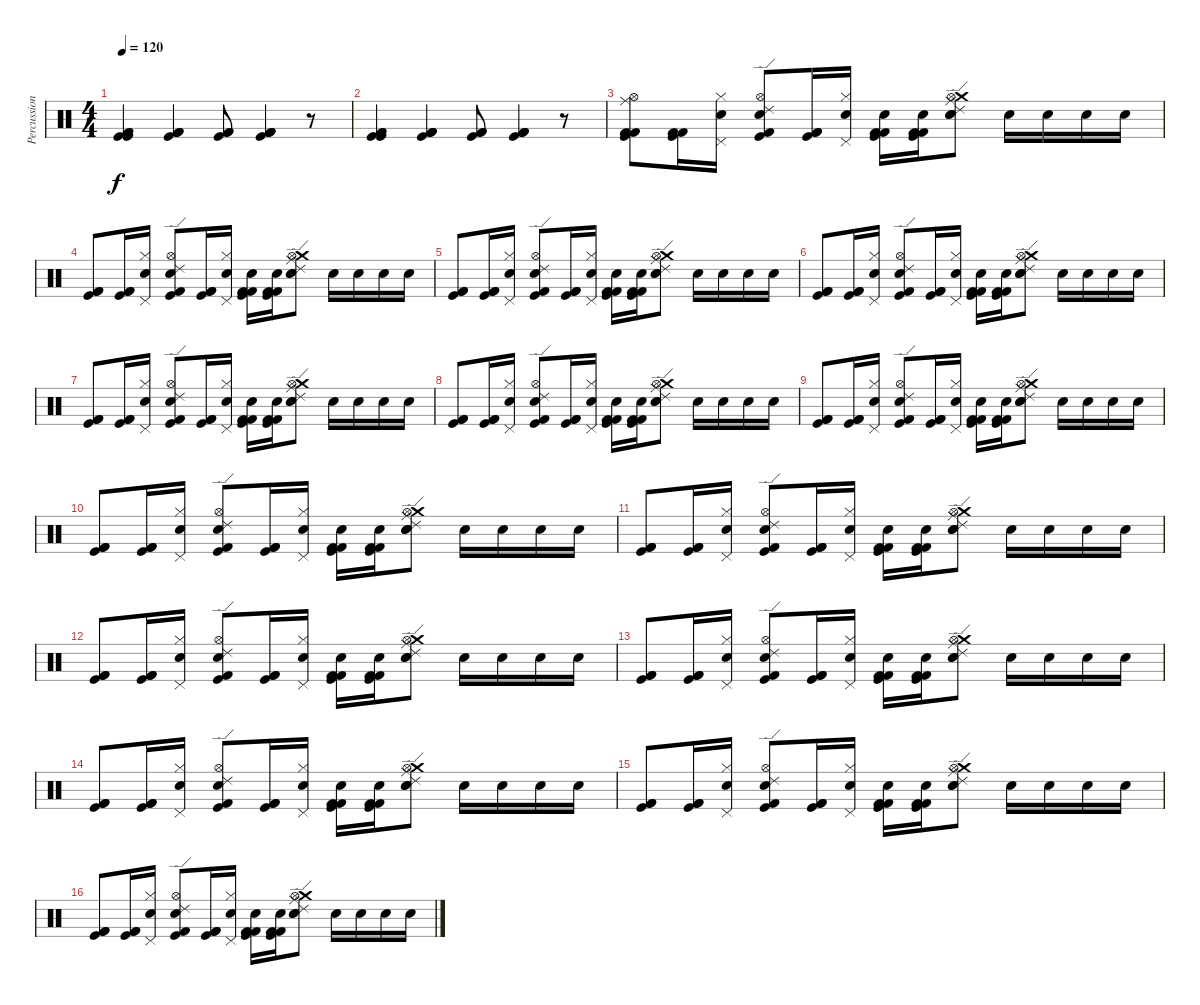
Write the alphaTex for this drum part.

\track ("Percussion" "Percussion") {instrument percussion}
\staff {score}
\articulation defaults
\ts (4 4)
\tempo 120
\clef neutral
\ks c
("Kick (hit)" "Kick (hit) 2" "Kick (hit) 2" "Kick (hit)").4{dy f} ("Kick (hit) 2" "Kick (hit) 2" "Kick (hit)" "Kick (hit) 2").4 ("Kick (hit) 2" "Kick (hit)" "Kick (hit) 2").8 ("Kick (hit) 2" "Kick (hit)" "Kick (hit) 2" "Kick (hit) 2").4 r.8 |
("Kick (hit)" "Kick (hit) 2" "Kick (hit) 2" "Kick (hit)").4 ("Kick (hit) 2" "Kick (hit) 2" "Kick (hit)" "Kick (hit) 2").4 ("Kick (hit) 2" "Kick (hit)" "Kick (hit) 2").8 ("Kick (hit) 2" "Kick (hit)" "Kick (hit) 2" "Kick (hit) 2").4 r.8 |
("Kick (hit) 2" "Kick (hit)" "Kick (hit) 2" "Ride (middle)" "Hi-Hat (open)").8 ("Kick (hit) 2" "Kick (hit)" "Kick (hit) 2").16 ("Pedal Hi-Hat (hit)" "Hi-Hat (closed)" "Electric Snare (hit)").16 ("Snare (hit) 2" "Kick (hit) 2" "Kick (hit)" "Ride (edge) 2" "Hi-Hat (open)").8 ("Kick (hit) 2" "Kick (hit)" "Kick (hit) 2").16 ("Pedal Hi-Hat (hit)" "Hi-Hat (closed)" "Electric Snare (hit)").16 ("Kick (hit) 2" "Snare (hit) 2" "Kick (hit) 2" "Kick (hit)").16 ("Kick (hit) 2" "Snare (hit) 2" "Kick (hit) 2" "Kick (hit)").16 ("Electric Snare (hit)" "Snare (hit) 2" "Crash medium (hit)" "Hi-Hat (open)" "Ride (middle)" "Ride (edge) 2").8 "Snare (hit) 2".16 "Electric Snare (hit)".16 "Electric Snare (hit)".16 "Snare (hit) 2".16 |
("Kick (hit) 2" "Kick (hit)" "Kick (hit) 2").8 ("Kick (hit) 2" "Kick (hit)" "Kick (hit) 2").16 ("Pedal Hi-Hat (hit)" "Hi-Hat (closed)" "Electric Snare (hit)").16 ("Snare (hit) 2" "Kick (hit) 2" "Kick (hit)" "Ride (edge) 2" "Hi-Hat (open)").8 ("Kick (hit) 2" "Kick (hit)" "Kick (hit) 2").16 ("Pedal Hi-Hat (hit)" "Hi-Hat (closed)" "Electric Snare (hit)").16 ("Kick (hit) 2" "Snare (hit) 2" "Kick (hit) 2" "Kick (hit)").16 ("Kick (hit) 2" "Snare (hit) 2" "Kick (hit) 2" "Kick (hit)").16 ("Electric Snare (hit)" "Snare (hit) 2" "Crash medium (hit)" "Hi-Hat (open)" "Ride (middle)" "Ride (edge) 2").8 "Snare (hit) 2".16 "Electric Snare (hit)".16 "Electric Snare (hit)".16 "Snare (hit) 2".16 |
("Kick (hit) 2" "Kick (hit)" "Kick (hit) 2").8 ("Kick (hit) 2" "Kick (hit)" "Kick (hit) 2").16 ("Pedal Hi-Hat (hit)" "Hi-Hat (closed)" "Electric Snare (hit)").16 ("Snare (hit) 2" "Kick (hit) 2" "Kick (hit)" "Ride (edge) 2" "Hi-Hat (open)").8 ("Kick (hit) 2" "Kick (hit)" "Kick (hit) 2").16 ("Pedal Hi-Hat (hit)" "Hi-Hat (closed)" "Electric Snare (hit)").16 ("Kick (hit) 2" "Snare (hit) 2" "Kick (hit) 2" "Kick (hit)").16 ("Kick (hit) 2" "Snare (hit) 2" "Kick (hit) 2" "Kick (hit)").16 ("Electric Snare (hit)" "Snare (hit) 2" "Crash medium (hit)" "Hi-Hat (open)" "Ride (middle)" "Ride (edge) 2").8 "Snare (hit) 2".16 "Electric Snare (hit)".16 "Electric Snare (hit)".16 "Snare (hit) 2".16 |
("Kick (hit) 2" "Kick (hit)" "Kick (hit) 2").8 ("Kick (hit) 2" "Kick (hit)" "Kick (hit) 2").16 ("Pedal Hi-Hat (hit)" "Hi-Hat (closed)" "Electric Snare (hit)").16 ("Snare (hit) 2" "Kick (hit) 2" "Kick (hit)" "Ride (edge) 2" "Hi-Hat (open)").8 ("Kick (hit) 2" "Kick (hit)" "Kick (hit) 2").16 ("Pedal Hi-Hat (hit)" "Hi-Hat (closed)" "Electric Snare (hit)").16 ("Kick (hit) 2" "Snare (hit) 2" "Kick (hit) 2" "Kick (hit)").16 ("Kick (hit) 2" "Snare (hit) 2" "Kick (hit) 2" "Kick (hit)").16 ("Electric Snare (hit)" "Snare (hit) 2" "Crash medium (hit)" "Hi-Hat (open)" "Ride (middle)" "Ride (edge) 2").8 "Snare (hit) 2".16 "Electric Snare (hit)".16 "Electric Snare (hit)".16 "Snare (hit) 2".16 |
("Kick (hit) 2" "Kick (hit)" "Kick (hit) 2").8 ("Kick (hit) 2" "Kick (hit)" "Kick (hit) 2").16 ("Pedal Hi-Hat (hit)" "Hi-Hat (closed)" "Electric Snare (hit)").16 ("Snare (hit) 2" "Kick (hit) 2" "Kick (hit)" "Ride (edge) 2" "Hi-Hat (open)").8 ("Kick (hit) 2" "Kick (hit)" "Kick (hit) 2").16 ("Pedal Hi-Hat (hit)" "Hi-Hat (closed)" "Electric Snare (hit)").16 ("Kick (hit) 2" "Snare (hit) 2" "Kick (hit) 2" "Kick (hit)").16 ("Kick (hit) 2" "Snare (hit) 2" "Kick (hit) 2" "Kick (hit)").16 ("Electric Snare (hit)" "Snare (hit) 2" "Crash medium (hit)" "Hi-Hat (open)" "Ride (middle)" "Ride (edge) 2").8 "Snare (hit) 2".16 "Electric Snare (hit)".16 "Electric Snare (hit)".16 "Snare (hit) 2".16 |
("Kick (hit) 2" "Kick (hit)" "Kick (hit) 2").8 ("Kick (hit) 2" "Kick (hit)" "Kick (hit) 2").16 ("Pedal Hi-Hat (hit)" "Hi-Hat (closed)" "Electric Snare (hit)").16 ("Snare (hit) 2" "Kick (hit) 2" "Kick (hit)" "Ride (edge) 2" "Hi-Hat (open)").8 ("Kick (hit) 2" "Kick (hit)" "Kick (hit) 2").16 ("Pedal Hi-Hat (hit)" "Hi-Hat (closed)" "Electric Snare (hit)").16 ("Kick (hit) 2" "Snare (hit) 2" "Kick (hit) 2" "Kick (hit)").16 ("Kick (hit) 2" "Snare (hit) 2" "Kick (hit) 2" "Kick (hit)").16 ("Electric Snare (hit)" "Snare (hit) 2" "Crash medium (hit)" "Hi-Hat (open)" "Ride (middle)" "Ride (edge) 2").8 "Snare (hit) 2".16 "Electric Snare (hit)".16 "Electric Snare (hit)".16 "Snare (hit) 2".16 |
("Kick (hit) 2" "Kick (hit)" "Kick (hit) 2").8 ("Kick (hit) 2" "Kick (hit)" "Kick (hit) 2").16 ("Pedal Hi-Hat (hit)" "Hi-Hat (closed)" "Electric Snare (hit)").16 ("Snare (hit) 2" "Kick (hit) 2" "Kick (hit)" "Ride (edge) 2" "Hi-Hat (open)").8 ("Kick (hit) 2" "Kick (hit)" "Kick (hit) 2").16 ("Pedal Hi-Hat (hit)" "Hi-Hat (closed)" "Electric Snare (hit)").16 ("Kick (hit) 2" "Snare (hit) 2" "Kick (hit) 2" "Kick (hit)").16 ("Kick (hit) 2" "Snare (hit) 2" "Kick (hit) 2" "Kick (hit)").16 ("Electric Snare (hit)" "Snare (hit) 2" "Crash medium (hit)" "Hi-Hat (open)" "Ride (middle)" "Ride (edge) 2").8 "Snare (hit) 2".16 "Electric Snare (hit)".16 "Electric Snare (hit)".16 "Snare (hit) 2".16 |
("Kick (hit) 2" "Kick (hit)" "Kick (hit) 2").8 ("Kick (hit) 2" "Kick (hit)" "Kick (hit) 2").16 ("Pedal Hi-Hat (hit)" "Hi-Hat (closed)" "Electric Snare (hit)").16 ("Snare (hit) 2" "Kick (hit) 2" "Kick (hit)" "Ride (edge) 2" "Hi-Hat (open)").8 ("Kick (hit) 2" "Kick (hit)" "Kick (hit) 2").16 ("Pedal Hi-Hat (hit)" "Hi-Hat (closed)" "Electric Snare (hit)").16 ("Kick (hit) 2" "Snare (hit) 2" "Kick (hit) 2" "Kick (hit)").16 ("Kick (hit) 2" "Snare (hit) 2" "Kick (hit) 2" "Kick (hit)").16 ("Electric Snare (hit)" "Snare (hit) 2" "Crash medium (hit)" "Hi-Hat (open)" "Ride (middle)" "Ride (edge) 2").8 "Snare (hit) 2".16 "Electric Snare (hit)".16 "Electric Snare (hit)".16 "Snare (hit) 2".16 |
("Kick (hit) 2" "Kick (hit)" "Kick (hit) 2").8 ("Kick (hit) 2" "Kick (hit)" "Kick (hit) 2").16 ("Pedal Hi-Hat (hit)" "Hi-Hat (closed)" "Electric Snare (hit)").16 ("Snare (hit) 2" "Kick (hit) 2" "Kick (hit)" "Ride (edge) 2" "Hi-Hat (open)").8 ("Kick (hit) 2" "Kick (hit)" "Kick (hit) 2").16 ("Pedal Hi-Hat (hit)" "Hi-Hat (closed)" "Electric Snare (hit)").16 ("Kick (hit) 2" "Snare (hit) 2" "Kick (hit) 2" "Kick (hit)").16 ("Kick (hit) 2" "Snare (hit) 2" "Kick (hit) 2" "Kick (hit)").16 ("Electric Snare (hit)" "Snare (hit) 2" "Crash medium (hit)" "Hi-Hat (open)" "Ride (middle)" "Ride (edge) 2").8 "Snare (hit) 2".16 "Electric Snare (hit)".16 "Electric Snare (hit)".16 "Snare (hit) 2".16 |
("Kick (hit) 2" "Kick (hit)" "Kick (hit) 2").8 ("Kick (hit) 2" "Kick (hit)" "Kick (hit) 2").16 ("Pedal Hi-Hat (hit)" "Hi-Hat (closed)" "Electric Snare (hit)").16 ("Snare (hit) 2" "Kick (hit) 2" "Kick (hit)" "Ride (edge) 2" "Hi-Hat (open)").8 ("Kick (hit) 2" "Kick (hit)" "Kick (hit) 2").16 ("Pedal Hi-Hat (hit)" "Hi-Hat (closed)" "Electric Snare (hit)").16 ("Kick (hit) 2" "Snare (hit) 2" "Kick (hit) 2" "Kick (hit)").16 ("Kick (hit) 2" "Snare (hit) 2" "Kick (hit) 2" "Kick (hit)").16 ("Electric Snare (hit)" "Snare (hit) 2" "Crash medium (hit)" "Hi-Hat (open)" "Ride (middle)" "Ride (edge) 2").8 "Snare (hit) 2".16 "Electric Snare (hit)".16 "Electric Snare (hit)".16 "Snare (hit) 2".16 |
("Kick (hit) 2" "Kick (hit)" "Kick (hit) 2").8 ("Kick (hit) 2" "Kick (hit)" "Kick (hit) 2").16 ("Pedal Hi-Hat (hit)" "Hi-Hat (closed)" "Electric Snare (hit)").16 ("Snare (hit) 2" "Kick (hit) 2" "Kick (hit)" "Ride (edge) 2" "Hi-Hat (open)").8 ("Kick (hit) 2" "Kick (hit)" "Kick (hit) 2").16 ("Pedal Hi-Hat (hit)" "Hi-Hat (closed)" "Electric Snare (hit)").16 ("Kick (hit) 2" "Snare (hit) 2" "Kick (hit) 2" "Kick (hit)").16 ("Kick (hit) 2" "Snare (hit) 2" "Kick (hit) 2" "Kick (hit)").16 ("Electric Snare (hit)" "Snare (hit) 2" "Crash medium (hit)" "Hi-Hat (open)" "Ride (middle)" "Ride (edge) 2").8 "Snare (hit) 2".16 "Electric Snare (hit)".16 "Electric Snare (hit)".16 "Snare (hit) 2".16 |
("Kick (hit) 2" "Kick (hit)" "Kick (hit) 2").8 ("Kick (hit) 2" "Kick (hit)" "Kick (hit) 2").16 ("Pedal Hi-Hat (hit)" "Hi-Hat (closed)" "Electric Snare (hit)").16 ("Snare (hit) 2" "Kick (hit) 2" "Kick (hit)" "Ride (edge) 2" "Hi-Hat (open)").8 ("Kick (hit) 2" "Kick (hit)" "Kick (hit) 2").16 ("Pedal Hi-Hat (hit)" "Hi-Hat (closed)" "Electric Snare (hit)").16 ("Kick (hit) 2" "Snare (hit) 2" "Kick (hit) 2" "Kick (hit)").16 ("Kick (hit) 2" "Snare (hit) 2" "Kick (hit) 2" "Kick (hit)").16 ("Electric Snare (hit)" "Snare (hit) 2" "Crash medium (hit)" "Hi-Hat (open)" "Ride (middle)" "Ride (edge) 2").8 "Snare (hit) 2".16 "Electric Snare (hit)".16 "Electric Snare (hit)".16 "Snare (hit) 2".16 |
("Kick (hit) 2" "Kick (hit)" "Kick (hit) 2").8 ("Kick (hit) 2" "Kick (hit)" "Kick (hit) 2").16 ("Pedal Hi-Hat (hit)" "Hi-Hat (closed)" "Electric Snare (hit)").16 ("Snare (hit) 2" "Kick (hit) 2" "Kick (hit)" "Ride (edge) 2" "Hi-Hat (open)").8 ("Kick (hit) 2" "Kick (hit)" "Kick (hit) 2").16 ("Pedal Hi-Hat (hit)" "Hi-Hat (closed)" "Electric Snare (hit)").16 ("Kick (hit) 2" "Snare (hit) 2" "Kick (hit) 2" "Kick (hit)").16 ("Kick (hit) 2" "Snare (hit) 2" "Kick (hit) 2" "Kick (hit)").16 ("Electric Snare (hit)" "Snare (hit) 2" "Crash medium (hit)" "Hi-Hat (open)" "Ride (middle)" "Ride (edge) 2").8 "Snare (hit) 2".16 "Electric Snare (hit)".16 "Electric Snare (hit)".16 "Snare (hit) 2".16 |
("Kick (hit) 2" "Kick (hit)" "Kick (hit) 2").8 ("Kick (hit) 2" "Kick (hit)" "Kick (hit) 2").16 ("Pedal Hi-Hat (hit)" "Hi-Hat (closed)" "Electric Snare (hit)").16 ("Snare (hit) 2" "Kick (hit) 2" "Kick (hit)" "Ride (edge) 2" "Hi-Hat (open)").8 ("Kick (hit) 2" "Kick (hit)" "Kick (hit) 2").16 ("Pedal Hi-Hat (hit)" "Hi-Hat (closed)" "Electric Snare (hit)").16 ("Kick (hit) 2" "Snare (hit) 2" "Kick (hit) 2" "Kick (hit)").16 ("Kick (hit) 2" "Snare (hit) 2" "Kick (hit) 2" "Kick (hit)").16 ("Electric Snare (hit)" "Snare (hit) 2" "Crash medium (hit)" "Hi-Hat (open)" "Ride (middle)" "Ride (edge) 2").8 "Snare (hit) 2".16 "Electric Snare (hit)".16 "Electric Snare (hit)".16 "Snare (hit) 2".16
